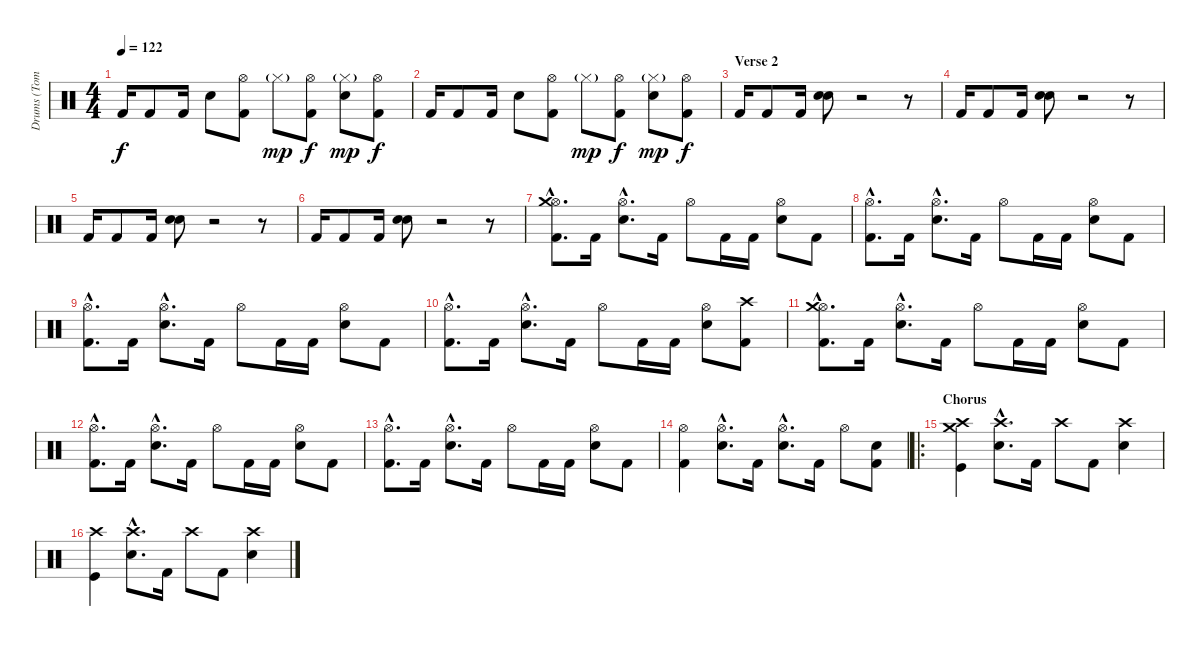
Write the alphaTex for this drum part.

\track ("Drums (Tommy Decker)" "Drums (Tom") {instrument percussion}
\staff {score}
\articulation defaults
\ts (4 4)
\tempo 122
\clef neutral
\ks c "Kick (hit) 2".16{dy f} "Kick (hit) 2".8 "Kick (hit) 2".16 "Snare (hit) 2".8
("Hi-Hat (open)" "Kick (hit) 2").8 "Hi-Hat (closed)"{g}.8{dy mp} ("Hi-Hat (open)" "Kick (hit) 2").8{dy f} ("Hi-Hat (closed)"{g} "Snare (hit) 2").8{dy mp} ("Hi-Hat (open)" "Kick (hit) 2").8{dy f} |
"Kick (hit) 2".16 "Kick (hit) 2".8 "Kick (hit) 2".16 "Snare (hit) 2".8 ("Hi-Hat (open)" "Kick (hit) 2").8 "Hi-Hat (closed)"{g}.8{dy mp} ("Hi-Hat (open)" "Kick (hit) 2").8{dy f} ("Hi-Hat (closed)"{g} "Snare (hit) 2").8{dy mp} ("Hi-Hat (open)" "Kick (hit) 2").8{dy f} |
\section ("" "Verse 2")
"Kick (hit) 2".16 "Kick (hit) 2".8 "Kick (hit) 2".16 ("Snare (hit) 2" "Hand Clap (hit)").8 r.2 r.8 |
"Kick (hit) 2".16 "Kick (hit) 2".8 "Kick (hit) 2".16 ("Snare (hit) 2" "Hand Clap (hit)").8 r.2 r.8 |
"Kick (hit) 2".16 "Kick (hit) 2".8 "Kick (hit) 2".16 ("Snare (hit) 2" "Hand Clap (hit)").8 r.2 r.8 |
"Kick (hit) 2".16 "Kick (hit) 2".8 "Kick (hit) 2".16 ("Snare (hit) 2" "Hand Clap (hit)").8 r.2 r.8 |
("Hi-Hat (open)"{hac} "Crash medium (hit)"{hac} "Kick (hit) 2"{hac}).8{d} "Kick (hit) 2".16 ("Hi-Hat (open)"{hac} "Snare (hit) 2"{hac}).8{d} "Kick (hit) 2".16 "Hi-Hat (open)".8 "Kick (hit) 2".16 "Kick (hit) 2".16 ("Hi-Hat (open)" "Snare (hit) 2").8 "Kick (hit) 2".8 |
("Hi-Hat (open)"{hac} "Kick (hit) 2"{hac}).8{d} "Kick (hit) 2".16 ("Hi-Hat (open)"{hac} "Snare (hit) 2"{hac}).8{d} "Kick (hit) 2".16 "Hi-Hat (open)".8 "Kick (hit) 2".16 "Kick (hit) 2".16 ("Hi-Hat (open)" "Snare (hit) 2").8 "Kick (hit) 2".8 |
("Hi-Hat (open)"{hac} "Kick (hit) 2"{hac}).8{d} "Kick (hit) 2".16 ("Hi-Hat (open)"{hac} "Snare (hit) 2"{hac}).8{d} "Kick (hit) 2".16 "Hi-Hat (open)".8 "Kick (hit) 2".16 "Kick (hit) 2".16 ("Hi-Hat (open)" "Snare (hit) 2").8 "Kick (hit) 2".8 |
("Hi-Hat (open)"{hac} "Kick (hit) 2"{hac}).8{d} "Kick (hit) 2".16 ("Hi-Hat (open)"{hac} "Snare (hit) 2"{hac}).8{d} "Kick (hit) 2".16 "Hi-Hat (open)".8 "Kick (hit) 2".16 "Kick (hit) 2".16 ("Hi-Hat (open)" "Snare (hit) 2").8 ("Crash high (hit)" "Kick (hit) 2").8 |
("Hi-Hat (open)"{hac} "Crash medium (hit)"{hac} "Kick (hit) 2"{hac}).8{d} "Kick (hit) 2".16 ("Hi-Hat (open)"{hac} "Snare (hit) 2"{hac}).8{d} "Kick (hit) 2".16 "Hi-Hat (open)".8 "Kick (hit) 2".16 "Kick (hit) 2".16 ("Hi-Hat (open)" "Snare (hit) 2").8 "Kick (hit) 2".8 |
("Hi-Hat (open)"{hac} "Kick (hit) 2"{hac}).8{d} "Kick (hit) 2".16 ("Hi-Hat (open)"{hac} "Snare (hit) 2"{hac}).8{d} "Kick (hit) 2".16 "Hi-Hat (open)".8 "Kick (hit) 2".16 "Kick (hit) 2".16 ("Hi-Hat (open)" "Snare (hit) 2").8 "Kick (hit) 2".8 |
("Hi-Hat (open)"{hac} "Kick (hit) 2"{hac}).8{d} "Kick (hit) 2".16 ("Hi-Hat (open)"{hac} "Snare (hit) 2"{hac}).8{d} "Kick (hit) 2".16 "Hi-Hat (open)".8 "Kick (hit) 2".16 "Kick (hit) 2".16 ("Hi-Hat (open)" "Snare (hit) 2").8 "Kick (hit) 2".8 |
("Hi-Hat (open)" "Kick (hit) 2").4 ("Hi-Hat (open)"{hac} "Snare (hit) 2"{hac}).8{d} "Kick (hit) 2".16 ("Hi-Hat (open)"{hac} "Snare (hit) 2"{hac}).8{d} "Kick (hit) 2".16 "Hi-Hat (open)".8 ("Snare (hit) 2" "Kick (hit) 2").8 |
\ro
\section ("" "Chorus")
("Crash high (hit)" "Crash medium (hit)" "Kick (hit)").4 ("Crash high (hit)"{hac} "Snare (hit) 2"{hac}).8{d} "Kick (hit) 2".16 "Crash high (hit)".8 "Kick (hit) 2".8 ("Crash high (hit)" "Snare (hit) 2").4 |
("Crash high (hit)" "Kick (hit)").4 ("Crash high (hit)"{hac} "Snare (hit) 2"{hac}).8{d} "Kick (hit) 2".16 "Crash high (hit)".8 "Kick (hit) 2".8 ("Crash high (hit)" "Snare (hit) 2").4
